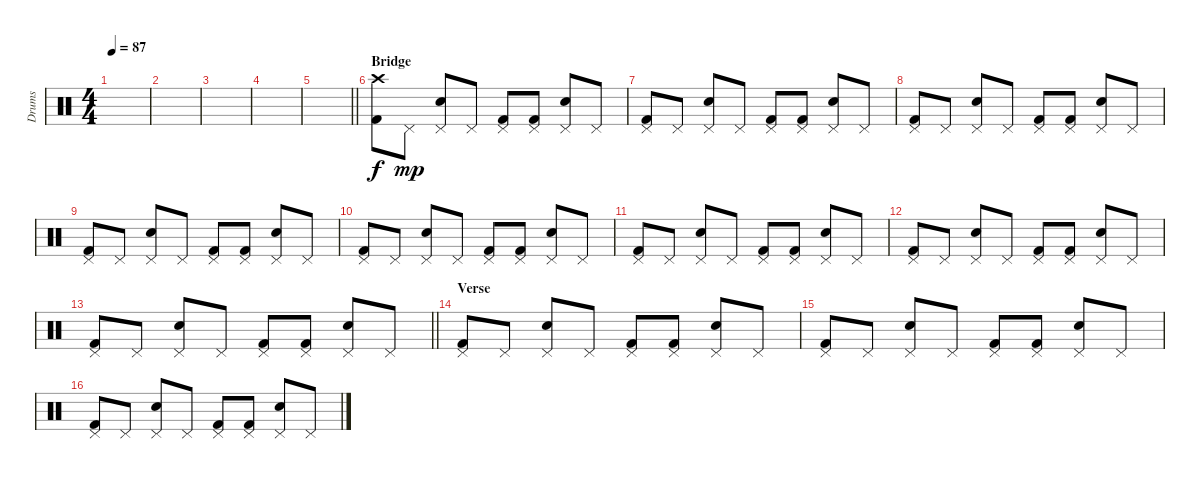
\track ("Drums" "Drums") {instrument percussion}
\staff {score}
\articulation defaults
\ts (4 4)
\tempo 87
\clef neutral
\ks c
|
|
|
|
\barLineRight lightlight
|
\section ("" "Bridge")
("Crash high (hit)" "Kick (hit) 2").8 "Pedal Hi-Hat (hit)".8{dy mp} ("Pedal Hi-Hat (hit)" "Snare (hit) 2").8 "Pedal Hi-Hat (hit)".8 ("Pedal Hi-Hat (hit)" "Kick (hit) 2").8 ("Pedal Hi-Hat (hit)" "Kick (hit) 2").8 ("Pedal Hi-Hat (hit)" "Snare (hit) 2").8 "Pedal Hi-Hat (hit)".8 |
("Pedal Hi-Hat (hit)" "Kick (hit) 2").8 "Pedal Hi-Hat (hit)".8 ("Pedal Hi-Hat (hit)" "Snare (hit) 2").8 "Pedal Hi-Hat (hit)".8 ("Pedal Hi-Hat (hit)" "Kick (hit) 2").8 ("Pedal Hi-Hat (hit)" "Kick (hit) 2").8 ("Pedal Hi-Hat (hit)" "Snare (hit) 2").8 "Pedal Hi-Hat (hit)".8 |
("Pedal Hi-Hat (hit)" "Kick (hit) 2").8 "Pedal Hi-Hat (hit)".8 ("Pedal Hi-Hat (hit)" "Snare (hit) 2").8 "Pedal Hi-Hat (hit)".8 ("Pedal Hi-Hat (hit)" "Kick (hit) 2").8 ("Pedal Hi-Hat (hit)" "Kick (hit) 2").8 ("Pedal Hi-Hat (hit)" "Snare (hit) 2").8 "Pedal Hi-Hat (hit)".8 |
("Pedal Hi-Hat (hit)" "Kick (hit) 2").8 "Pedal Hi-Hat (hit)".8 ("Pedal Hi-Hat (hit)" "Snare (hit) 2").8 "Pedal Hi-Hat (hit)".8 ("Pedal Hi-Hat (hit)" "Kick (hit) 2").8 ("Pedal Hi-Hat (hit)" "Kick (hit) 2").8 ("Pedal Hi-Hat (hit)" "Snare (hit) 2").8 "Pedal Hi-Hat (hit)".8 |
("Pedal Hi-Hat (hit)" "Kick (hit) 2").8 "Pedal Hi-Hat (hit)".8 ("Pedal Hi-Hat (hit)" "Snare (hit) 2").8 "Pedal Hi-Hat (hit)".8 ("Pedal Hi-Hat (hit)" "Kick (hit) 2").8 ("Pedal Hi-Hat (hit)" "Kick (hit) 2").8 ("Pedal Hi-Hat (hit)" "Snare (hit) 2").8 "Pedal Hi-Hat (hit)".8 |
("Pedal Hi-Hat (hit)" "Kick (hit) 2").8 "Pedal Hi-Hat (hit)".8 ("Pedal Hi-Hat (hit)" "Snare (hit) 2").8 "Pedal Hi-Hat (hit)".8 ("Pedal Hi-Hat (hit)" "Kick (hit) 2").8 ("Pedal Hi-Hat (hit)" "Kick (hit) 2").8 ("Pedal Hi-Hat (hit)" "Snare (hit) 2").8 "Pedal Hi-Hat (hit)".8 |
("Pedal Hi-Hat (hit)" "Kick (hit) 2").8 "Pedal Hi-Hat (hit)".8 ("Pedal Hi-Hat (hit)" "Snare (hit) 2").8 "Pedal Hi-Hat (hit)".8 ("Pedal Hi-Hat (hit)" "Kick (hit) 2").8 ("Pedal Hi-Hat (hit)" "Kick (hit) 2").8 ("Pedal Hi-Hat (hit)" "Snare (hit) 2").8 "Pedal Hi-Hat (hit)".8 |
\barLineRight lightlight
("Pedal Hi-Hat (hit)" "Kick (hit) 2").8 "Pedal Hi-Hat (hit)".8 ("Pedal Hi-Hat (hit)" "Snare (hit) 2").8 "Pedal Hi-Hat (hit)".8 ("Pedal Hi-Hat (hit)" "Kick (hit) 2").8 ("Pedal Hi-Hat (hit)" "Kick (hit) 2").8 ("Pedal Hi-Hat (hit)" "Snare (hit) 2").8 "Pedal Hi-Hat (hit)".8 |
\section ("" "Verse")
("Pedal Hi-Hat (hit)" "Kick (hit) 2").8 "Pedal Hi-Hat (hit)".8 ("Pedal Hi-Hat (hit)" "Snare (hit) 2").8 "Pedal Hi-Hat (hit)".8 ("Pedal Hi-Hat (hit)" "Kick (hit) 2").8 ("Pedal Hi-Hat (hit)" "Kick (hit) 2").8 ("Pedal Hi-Hat (hit)" "Snare (hit) 2").8 "Pedal Hi-Hat (hit)".8 |
("Pedal Hi-Hat (hit)" "Kick (hit) 2").8 "Pedal Hi-Hat (hit)".8 ("Pedal Hi-Hat (hit)" "Snare (hit) 2").8 "Pedal Hi-Hat (hit)".8 ("Pedal Hi-Hat (hit)" "Kick (hit) 2").8 ("Pedal Hi-Hat (hit)" "Kick (hit) 2").8 ("Pedal Hi-Hat (hit)" "Snare (hit) 2").8 "Pedal Hi-Hat (hit)".8 |
("Pedal Hi-Hat (hit)" "Kick (hit) 2").8 "Pedal Hi-Hat (hit)".8 ("Pedal Hi-Hat (hit)" "Snare (hit) 2").8 "Pedal Hi-Hat (hit)".8 ("Pedal Hi-Hat (hit)" "Kick (hit) 2").8 ("Pedal Hi-Hat (hit)" "Kick (hit) 2").8 ("Pedal Hi-Hat (hit)" "Snare (hit) 2").8 "Pedal Hi-Hat (hit)".8
